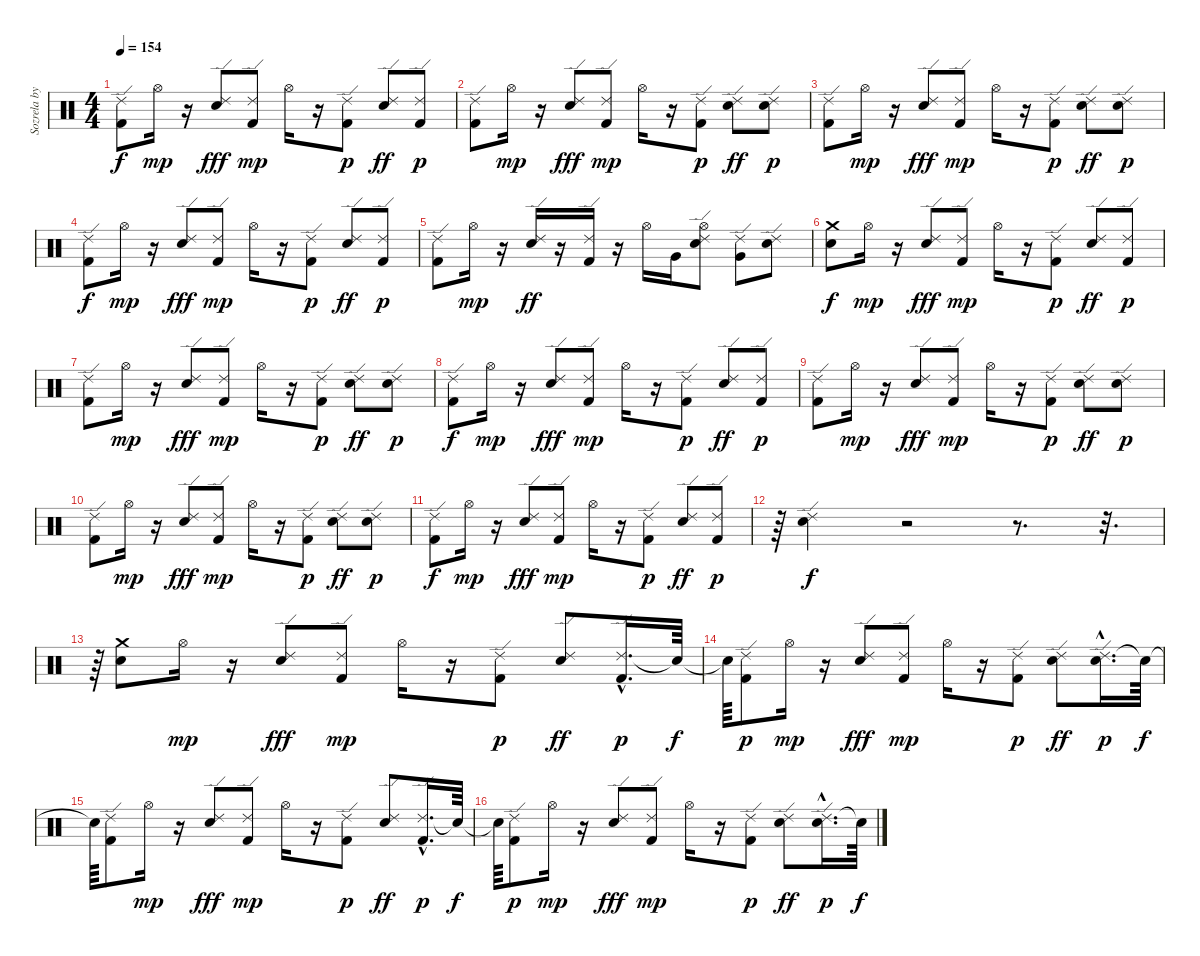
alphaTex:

\track ("Sozrela by Anton" "Sozrela by") {instrument percussion}
\staff {score}
\articulation defaults
\ts (4 4)
\tempo 154
\clef neutral
\ks c
("Kick (hit) 2" "Ride (edge) 2").8{dy f} "Hi-Hat (open)".16{dy mp} r.16 ("Ride (edge) 2" "Snare (hit) 2").8{dy fff} ("Ride (edge) 2" "Kick (hit) 2").8{dy mp} "Hi-Hat (open)".16 r.16 ("Ride (edge) 2" "Kick (hit) 2").8{dy p} ("Ride (edge) 2" "Snare (hit) 2").8{dy ff} ("Ride (edge) 2" "Kick (hit) 2").8{dy p} |
("Kick (hit) 2" "Ride (edge) 2").8 "Hi-Hat (open)".16{dy mp} r.16 ("Ride (edge) 2" "Snare (hit) 2").8{dy fff} ("Ride (edge) 2" "Kick (hit) 2").8{dy mp} "Hi-Hat (open)".16 r.16 ("Ride (edge) 2" "Kick (hit) 2").8{dy p} ("Ride (edge) 2" "Snare (hit) 2").8{dy ff} ("Ride (edge) 2" "Snare (hit) 2").8{dy p} |
("Kick (hit) 2" "Ride (edge) 2").8 "Hi-Hat (open)".16{dy mp} r.16 ("Ride (edge) 2" "Snare (hit) 2").8{dy fff} ("Ride (edge) 2" "Kick (hit) 2").8{dy mp} "Hi-Hat (open)".16 r.16 ("Ride (edge) 2" "Kick (hit) 2").8{dy p} ("Ride (edge) 2" "Snare (hit) 2").8{dy ff} ("Ride (edge) 2" "Snare (hit) 2").8{dy p} |
("Kick (hit) 2" "Ride (edge) 2").8{dy f} "Hi-Hat (open)".16{dy mp} r.16 ("Ride (edge) 2" "Snare (hit) 2").8{dy fff} ("Ride (edge) 2" "Kick (hit) 2").8{dy mp} "Hi-Hat (open)".16 r.16 ("Ride (edge) 2" "Kick (hit) 2").8{dy p} ("Ride (edge) 2" "Snare (hit) 2").8{dy ff} ("Ride (edge) 2" "Kick (hit) 2").8{dy p} |
("Kick (hit) 2" "Ride (edge) 2").8 "Hi-Hat (open)".16{dy mp} r.16 ("Snare (hit) 2" "Ride (edge) 2").16{dy ff} r.16 ("Kick (hit) 2" "Ride (edge) 2").16 r.16 "Hi-Hat (open)".16 "Very Low Tom (hit)".16 ("Hi-Hat (open)" "Ride (edge) 2" "Electric Snare (hit)").8 ("Ride (edge) 2" "Very Low Tom (hit)").8 ("Ride (edge) 2" "Electric Snare (hit)").8 |
("Electric Snare (hit)" "Crash medium (hit)").8{dy f} "Hi-Hat (open)".16{dy mp} r.16 ("Ride (edge) 2" "Snare (hit) 2").8{dy fff} ("Ride (edge) 2" "Kick (hit) 2").8{dy mp} "Hi-Hat (open)".16 r.16 ("Ride (edge) 2" "Kick (hit) 2").8{dy p} ("Ride (edge) 2" "Snare (hit) 2").8{dy ff} ("Ride (edge) 2" "Kick (hit) 2").8{dy p} |
("Kick (hit) 2" "Ride (edge) 2").8 "Hi-Hat (open)".16{dy mp} r.16 ("Ride (edge) 2" "Snare (hit) 2").8{dy fff} ("Ride (edge) 2" "Kick (hit) 2").8{dy mp} "Hi-Hat (open)".16 r.16 ("Ride (edge) 2" "Kick (hit) 2").8{dy p} ("Ride (edge) 2" "Snare (hit) 2").8{dy ff} ("Ride (edge) 2" "Snare (hit) 2").8{dy p} |
("Kick (hit) 2" "Ride (edge) 2").8{dy f} "Hi-Hat (open)".16{dy mp} r.16 ("Ride (edge) 2" "Snare (hit) 2").8{dy fff} ("Ride (edge) 2" "Kick (hit) 2").8{dy mp} "Hi-Hat (open)".16 r.16 ("Ride (edge) 2" "Kick (hit) 2").8{dy p} ("Ride (edge) 2" "Snare (hit) 2").8{dy ff} ("Ride (edge) 2" "Kick (hit) 2").8{dy p} |
("Kick (hit) 2" "Ride (edge) 2").8 "Hi-Hat (open)".16{dy mp} r.16 ("Ride (edge) 2" "Snare (hit) 2").8{dy fff} ("Ride (edge) 2" "Kick (hit) 2").8{dy mp} "Hi-Hat (open)".16 r.16 ("Ride (edge) 2" "Kick (hit) 2").8{dy p} ("Ride (edge) 2" "Snare (hit) 2").8{dy ff} ("Ride (edge) 2" "Snare (hit) 2").8{dy p} |
("Kick (hit) 2" "Ride (edge) 2").8 "Hi-Hat (open)".16{dy mp} r.16 ("Ride (edge) 2" "Snare (hit) 2").8{dy fff} ("Ride (edge) 2" "Kick (hit) 2").8{dy mp} "Hi-Hat (open)".16 r.16 ("Ride (edge) 2" "Kick (hit) 2").8{dy p} ("Ride (edge) 2" "Snare (hit) 2").8{dy ff} ("Ride (edge) 2" "Snare (hit) 2").8{dy p} |
("Kick (hit) 2" "Ride (edge) 2").8{dy f} "Hi-Hat (open)".16{dy mp} r.16 ("Ride (edge) 2" "Snare (hit) 2").8{dy fff} ("Ride (edge) 2" "Kick (hit) 2").8{dy mp} "Hi-Hat (open)".16 r.16 ("Ride (edge) 2" "Kick (hit) 2").8{dy p} ("Ride (edge) 2" "Snare (hit) 2").8{dy ff} ("Ride (edge) 2" "Kick (hit) 2").8{dy p} |
r.64 ("Snare (hit) 2" "Ride (edge) 2").4{dy f} r.2 r.8{d} r.32{d} |
r.64 ("Electric Snare (hit)" "Crash medium (hit)").8 "Hi-Hat (open)".16{dy mp} r.16 ("Ride (edge) 2" "Snare (hit) 2").8{dy fff} ("Ride (edge) 2" "Kick (hit) 2").8{dy mp} "Hi-Hat (open)".16 r.16 ("Ride (edge) 2" "Kick (hit) 2").8{dy p} ("Ride (edge) 2" "Snare (hit) 2").8{dy ff} ("Ride (edge) 2" "Kick (hit) 2"{hac}).16{d dy p} "Snare (hit)"{t}.64{dy f} |
"Snare (hit)"{t}.64 ("Kick (hit) 2" "Ride (edge) 2").8{dy p} "Hi-Hat (open)".16{dy mp} r.16 ("Ride (edge) 2" "Snare (hit) 2").8{dy fff} ("Ride (edge) 2" "Kick (hit) 2").8{dy mp} "Hi-Hat (open)".16 r.16 ("Ride (edge) 2" "Kick (hit) 2").8{dy p} ("Ride (edge) 2" "Snare (hit) 2").8{dy ff} ("Ride (edge) 2" "Snare (hit) 2"{hac}).16{d dy p} "Snare (hit)"{t}.64{dy f} |
"Snare (hit)"{t}.64 ("Kick (hit) 2" "Ride (edge) 2").8 "Hi-Hat (open)".16{dy mp} r.16 ("Ride (edge) 2" "Snare (hit) 2").8{dy fff} ("Ride (edge) 2" "Kick (hit) 2").8{dy mp} "Hi-Hat (open)".16 r.16 ("Ride (edge) 2" "Kick (hit) 2").8{dy p} ("Ride (edge) 2" "Snare (hit) 2").8{dy ff} ("Ride (edge) 2" "Kick (hit) 2"{hac}).16{d dy p} "Snare (hit)"{t}.64{dy f} |
"Snare (hit)"{t}.64 ("Kick (hit) 2" "Ride (edge) 2").8{dy p} "Hi-Hat (open)".16{dy mp} r.16 ("Ride (edge) 2" "Snare (hit) 2").8{dy fff} ("Ride (edge) 2" "Kick (hit) 2").8{dy mp} "Hi-Hat (open)".16 r.16 ("Ride (edge) 2" "Kick (hit) 2").8{dy p} ("Ride (edge) 2" "Snare (hit) 2").8{dy ff} ("Ride (edge) 2" "Snare (hit) 2"{hac}).16{d dy p} "Snare (hit)"{t}.64{dy f}
